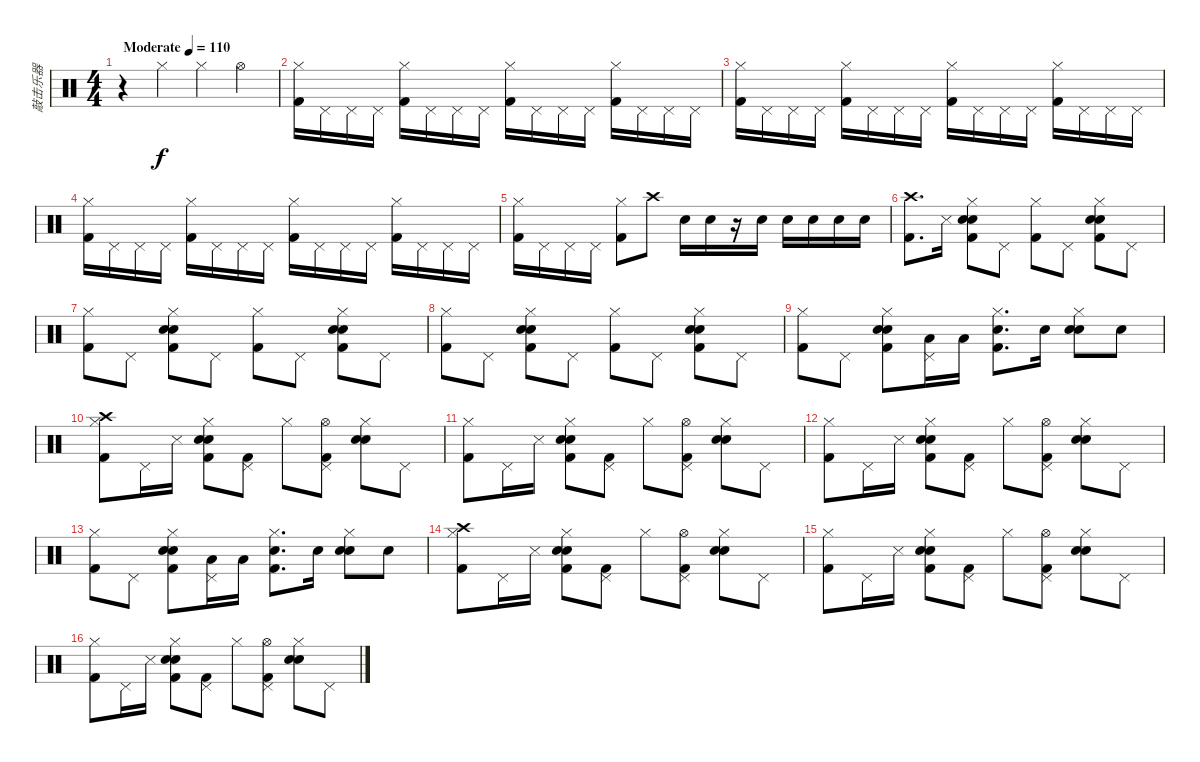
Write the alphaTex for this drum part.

\track ("敲击乐器" "敲击乐器") {instrument percussion}
\staff {score}
\articulation defaults
\ts (4 4)
\tempo (110 "Moderate")
\clef neutral
\ks c
r.4{dy f} "Hi-Hat (closed)".4 "Hi-Hat (closed)".4 "Hi-Hat (open)".4 |
("Hi-Hat (closed)" "Kick (hit) 2").16 "Pedal Hi-Hat (hit)".16 "Pedal Hi-Hat (hit)".16 "Pedal Hi-Hat (hit)".16 ("Hi-Hat (closed)" "Kick (hit) 2").16 "Pedal Hi-Hat (hit)".16 "Pedal Hi-Hat (hit)".16 "Pedal Hi-Hat (hit)".16 ("Hi-Hat (closed)" "Kick (hit) 2").16 "Pedal Hi-Hat (hit)".16 "Pedal Hi-Hat (hit)".16 "Pedal Hi-Hat (hit)".16 ("Hi-Hat (closed)" "Kick (hit) 2").16 "Pedal Hi-Hat (hit)".16 "Pedal Hi-Hat (hit)".16 "Pedal Hi-Hat (hit)".16 |
("Hi-Hat (closed)" "Kick (hit) 2").16 "Pedal Hi-Hat (hit)".16 "Pedal Hi-Hat (hit)".16 "Pedal Hi-Hat (hit)".16 ("Hi-Hat (closed)" "Kick (hit) 2").16 "Pedal Hi-Hat (hit)".16 "Pedal Hi-Hat (hit)".16 "Pedal Hi-Hat (hit)".16 ("Hi-Hat (closed)" "Kick (hit) 2").16 "Pedal Hi-Hat (hit)".16 "Pedal Hi-Hat (hit)".16 "Pedal Hi-Hat (hit)".16 ("Hi-Hat (closed)" "Kick (hit) 2").16 "Pedal Hi-Hat (hit)".16 "Pedal Hi-Hat (hit)".16 "Pedal Hi-Hat (hit)".16 |
("Hi-Hat (closed)" "Kick (hit) 2").16 "Pedal Hi-Hat (hit)".16 "Pedal Hi-Hat (hit)".16 "Pedal Hi-Hat (hit)".16 ("Hi-Hat (closed)" "Kick (hit) 2").16 "Pedal Hi-Hat (hit)".16 "Pedal Hi-Hat (hit)".16 "Pedal Hi-Hat (hit)".16 ("Hi-Hat (closed)" "Kick (hit) 2").16 "Pedal Hi-Hat (hit)".16 "Pedal Hi-Hat (hit)".16 "Pedal Hi-Hat (hit)".16 ("Hi-Hat (closed)" "Kick (hit) 2").16 "Pedal Hi-Hat (hit)".16 "Pedal Hi-Hat (hit)".16 "Pedal Hi-Hat (hit)".16 |
("Hi-Hat (closed)" "Kick (hit) 2").16 "Pedal Hi-Hat (hit)".16 "Pedal Hi-Hat (hit)".16 "Pedal Hi-Hat (hit)".16 ("Hi-Hat (closed)" "Kick (hit) 2").8 "Crash high (hit)".8 "Snare (hit) 2".16 "Snare (hit) 2".16 r.16 "Snare (hit) 2".16 "Electric Snare (hit)".16 "Electric Snare (hit)".16 "Electric Snare (hit)".16 "Electric Snare (hit)".16 |
("Crash high (hit)" "Kick (hit) 2").8{d} "Snare (side stick) 3".16 ("Hand Clap (hit)" "Electric Snare (hit)" "Hi-Hat (closed)" "Kick (hit) 2").8 "Pedal Hi-Hat (hit)".8 ("Hi-Hat (closed)" "Kick (hit) 2").8 "Pedal Hi-Hat (hit)".8 ("Hand Clap (hit)" "Electric Snare (hit)" "Hi-Hat (closed)" "Kick (hit) 2").8 "Pedal Hi-Hat (hit)".8 |
("Hi-Hat (closed)" "Kick (hit) 2").8 "Pedal Hi-Hat (hit)".8 ("Hand Clap (hit)" "Electric Snare (hit)" "Hi-Hat (closed)" "Kick (hit) 2").8 "Pedal Hi-Hat (hit)".8 ("Hi-Hat (closed)" "Kick (hit) 2").8 "Pedal Hi-Hat (hit)".8 ("Hand Clap (hit)" "Electric Snare (hit)" "Hi-Hat (closed)" "Kick (hit) 2").8 "Pedal Hi-Hat (hit)".8 |
("Hi-Hat (closed)" "Kick (hit) 2").8 "Pedal Hi-Hat (hit)".8 ("Hand Clap (hit)" "Electric Snare (hit)" "Hi-Hat (closed)" "Kick (hit) 2").8 "Pedal Hi-Hat (hit)".8 ("Hi-Hat (closed)" "Kick (hit) 2").8 "Pedal Hi-Hat (hit)".8 ("Hand Clap (hit)" "Electric Snare (hit)" "Hi-Hat (closed)" "Kick (hit) 2").8 "Pedal Hi-Hat (hit)".8 |
("Hi-Hat (closed)" "Kick (hit) 2").8 "Pedal Hi-Hat (hit)".8 ("Hand Clap (hit)" "Electric Snare (hit)" "Hi-Hat (closed)" "Kick (hit) 2").8 ("Pedal Hi-Hat (hit)" "Low Tom (hit)").16 "Low Tom (hit)".16 ("Electric Snare (hit)" "Hi-Hat (closed)" "Kick (hit) 2").8{d} "Snare (hit) 2".16 ("Hand Clap (hit)" "Electric Snare (hit)" "Hi-Hat (closed)").8 "Snare (hit) 2".8 |
("Crash high (hit)" "Hi-Hat (closed)" "Kick (hit) 2").8 "Pedal Hi-Hat (hit)".16 "Snare (side stick) 3".16 ("Hand Clap (hit)" "Electric Snare (hit)" "Hi-Hat (closed)" "Kick (hit) 2").8 ("Pedal Hi-Hat (hit)" "Kick (hit) 2").8 "Hi-Hat (closed)".8 ("Hi-Hat (open)" "Pedal Hi-Hat (hit)" "Kick (hit) 2").8 ("Hand Clap (hit)" "Electric Snare (hit)" "Hi-Hat (closed)").8 "Pedal Hi-Hat (hit)".8 |
("Hi-Hat (closed)" "Kick (hit) 2").8 "Pedal Hi-Hat (hit)".16 "Snare (side stick) 3".16 ("Hand Clap (hit)" "Electric Snare (hit)" "Hi-Hat (closed)" "Kick (hit) 2").8 ("Pedal Hi-Hat (hit)" "Kick (hit) 2").8 "Hi-Hat (closed)".8 ("Hi-Hat (open)" "Pedal Hi-Hat (hit)" "Kick (hit) 2").8 ("Hand Clap (hit)" "Electric Snare (hit)" "Hi-Hat (closed)").8 "Pedal Hi-Hat (hit)".8 |
("Hi-Hat (closed)" "Kick (hit) 2").8 "Pedal Hi-Hat (hit)".16 "Snare (side stick) 3".16 ("Hand Clap (hit)" "Electric Snare (hit)" "Hi-Hat (closed)" "Kick (hit) 2").8 ("Pedal Hi-Hat (hit)" "Kick (hit) 2").8 "Hi-Hat (closed)".8 ("Hi-Hat (open)" "Pedal Hi-Hat (hit)" "Kick (hit) 2").8 ("Hand Clap (hit)" "Electric Snare (hit)" "Hi-Hat (closed)").8 "Pedal Hi-Hat (hit)".8 |
("Hi-Hat (closed)" "Kick (hit) 2").8 "Pedal Hi-Hat (hit)".8 ("Hand Clap (hit)" "Electric Snare (hit)" "Hi-Hat (closed)" "Kick (hit) 2").8 ("Pedal Hi-Hat (hit)" "Low Tom (hit)").16 "Low Tom (hit)".16 ("Electric Snare (hit)" "Hi-Hat (closed)" "Kick (hit) 2").8{d} "Snare (hit) 2".16 ("Hand Clap (hit)" "Electric Snare (hit)" "Hi-Hat (closed)").8 "Snare (hit) 2".8 |
("Crash high (hit)" "Hi-Hat (closed)" "Kick (hit) 2").8 "Pedal Hi-Hat (hit)".16 "Snare (side stick) 3".16 ("Hand Clap (hit)" "Electric Snare (hit)" "Hi-Hat (closed)" "Kick (hit) 2").8 ("Pedal Hi-Hat (hit)" "Kick (hit) 2").8 "Hi-Hat (closed)".8 ("Hi-Hat (open)" "Pedal Hi-Hat (hit)" "Kick (hit) 2").8 ("Hand Clap (hit)" "Electric Snare (hit)" "Hi-Hat (closed)").8 "Pedal Hi-Hat (hit)".8 |
("Hi-Hat (closed)" "Kick (hit) 2").8 "Pedal Hi-Hat (hit)".16 "Snare (side stick) 3".16 ("Hand Clap (hit)" "Electric Snare (hit)" "Hi-Hat (closed)" "Kick (hit) 2").8 ("Pedal Hi-Hat (hit)" "Kick (hit) 2").8 "Hi-Hat (closed)".8 ("Hi-Hat (open)" "Pedal Hi-Hat (hit)" "Kick (hit) 2").8 ("Hand Clap (hit)" "Electric Snare (hit)" "Hi-Hat (closed)").8 "Pedal Hi-Hat (hit)".8 |
("Hi-Hat (closed)" "Kick (hit) 2").8 "Pedal Hi-Hat (hit)".16 "Snare (side stick) 3".16 ("Hand Clap (hit)" "Electric Snare (hit)" "Hi-Hat (closed)" "Kick (hit) 2").8 ("Pedal Hi-Hat (hit)" "Kick (hit) 2").8 "Hi-Hat (closed)".8 ("Hi-Hat (open)" "Pedal Hi-Hat (hit)" "Kick (hit) 2").8 ("Hand Clap (hit)" "Electric Snare (hit)" "Hi-Hat (closed)").8 "Pedal Hi-Hat (hit)".8
